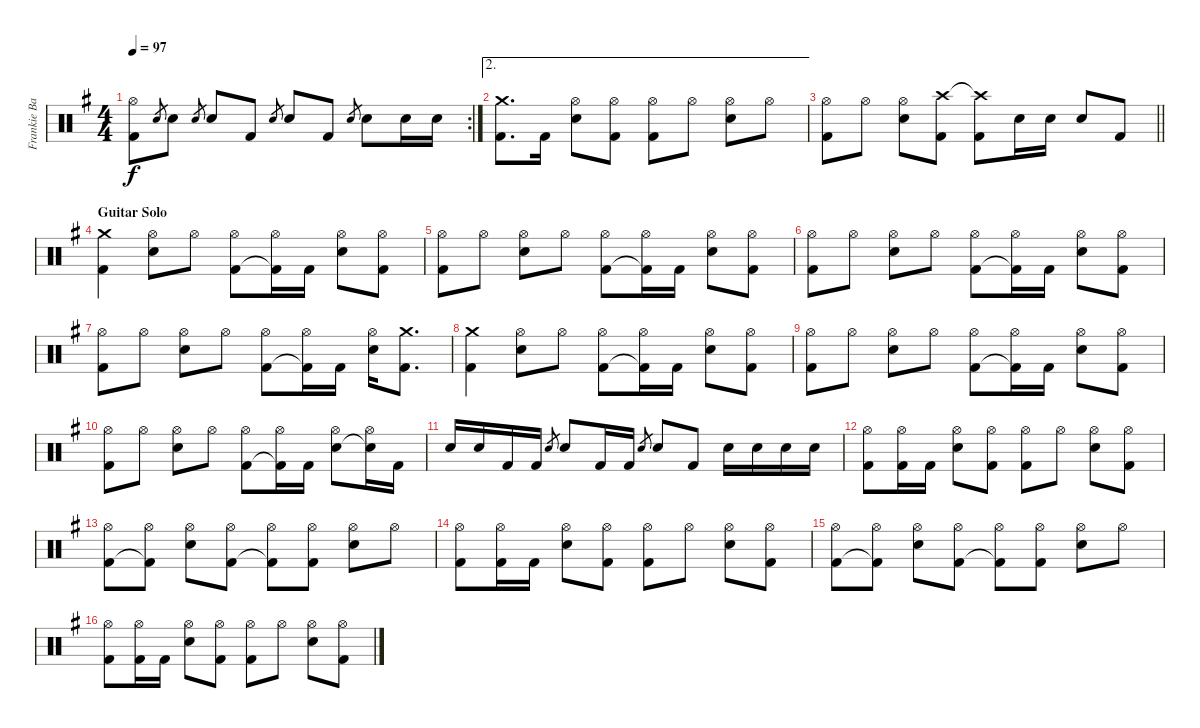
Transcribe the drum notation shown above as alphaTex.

\track ("Frankie Banali" "Frankie Ba") {instrument percussion}
\staff {score}
\articulation defaults
\rc 2
\ts (4 4)
\tempo 97
\clef neutral
\ks g
("Hi-Hat (open)" "Kick (hit) 2").8{dy f} "Snare (hit) 2".8{gr} "Snare (hit) 2".8 "Snare (hit) 2".8{gr} "Snare (hit) 2".8 "Kick (hit) 2".8 "Snare (hit) 2".8{gr} "Snare (hit) 2".8 "Kick (hit) 2".8 "Snare (hit) 2".8{gr} "Snare (hit) 2".8 "Snare (hit) 2".16 "Snare (hit) 2".16 |
\ae 2
("Crash medium (hit)" "Kick (hit) 2").8{d} "Kick (hit) 2".16 ("Hi-Hat (open)" "Snare (hit) 2").8 ("Hi-Hat (open)" "Kick (hit) 2").8 ("Hi-Hat (open)" "Kick (hit) 2").8 "Hi-Hat (open)".8 ("Hi-Hat (open)" "Snare (hit) 2").8 "Hi-Hat (open)".8 |
\barLineRight lightlight
("Hi-Hat (open)" "Kick (hit) 2").8 "Hi-Hat (open)".8 ("Hi-Hat (open)" "Snare (hit) 2").8 ("Crash high (hit)" "Kick (hit) 2").8 ("Crash high (hit)"{t} "Kick (hit) 2").8 "Snare (hit) 2".16 "Snare (hit) 2".16 "Snare (hit) 2".8 "Kick (hit) 2".8 |
\section ("" "Guitar Solo")
("Crash medium (hit)" "Kick (hit) 2").4 ("Hi-Hat (open)" "Snare (hit) 2").8 "Hi-Hat (open)".8 ("Hi-Hat (open)" "Kick (hit) 2").8 ("Hi-Hat (open)" "Kick (hit) 2"{t}).16 "Kick (hit) 2".16 ("Hi-Hat (open)" "Snare (hit) 2").8 ("Hi-Hat (open)" "Kick (hit) 2").8 |
("Hi-Hat (open)" "Kick (hit) 2").8 "Hi-Hat (open)".8 ("Hi-Hat (open)" "Snare (hit) 2").8 "Hi-Hat (open)".8 ("Hi-Hat (open)" "Kick (hit) 2").8 ("Hi-Hat (open)" "Kick (hit) 2"{t}).16 "Kick (hit) 2".16 ("Hi-Hat (open)" "Snare (hit) 2").8 ("Hi-Hat (open)" "Kick (hit) 2").8 |
("Hi-Hat (open)" "Kick (hit) 2").8 "Hi-Hat (open)".8 ("Hi-Hat (open)" "Snare (hit) 2").8 "Hi-Hat (open)".8 ("Hi-Hat (open)" "Kick (hit) 2").8 ("Hi-Hat (open)" "Kick (hit) 2"{t}).16 "Kick (hit) 2".16 ("Hi-Hat (open)" "Snare (hit) 2").8 ("Hi-Hat (open)" "Kick (hit) 2").8 |
("Hi-Hat (open)" "Kick (hit) 2").8 "Hi-Hat (open)".8 ("Hi-Hat (open)" "Snare (hit) 2").8 "Hi-Hat (open)".8 ("Hi-Hat (open)" "Kick (hit) 2").8 ("Hi-Hat (open)" "Kick (hit) 2"{t}).16 "Kick (hit) 2".16 ("Hi-Hat (open)" "Snare (hit) 2").16 ("Crash medium (hit)" "Kick (hit) 2").8{d} |
("Crash medium (hit)" "Kick (hit) 2").4 ("Hi-Hat (open)" "Snare (hit) 2").8 "Hi-Hat (open)".8 ("Hi-Hat (open)" "Kick (hit) 2").8 ("Hi-Hat (open)" "Kick (hit) 2"{t}).16 "Kick (hit) 2".16 ("Hi-Hat (open)" "Snare (hit) 2").8 ("Hi-Hat (open)" "Kick (hit) 2").8 |
("Hi-Hat (open)" "Kick (hit) 2").8 "Hi-Hat (open)".8 ("Hi-Hat (open)" "Snare (hit) 2").8 "Hi-Hat (open)".8 ("Hi-Hat (open)" "Kick (hit) 2").8 ("Hi-Hat (open)" "Kick (hit) 2"{t}).16 "Kick (hit) 2".16 ("Hi-Hat (open)" "Snare (hit) 2").8 ("Hi-Hat (open)" "Kick (hit) 2").8 |
("Hi-Hat (open)" "Kick (hit) 2").8 "Hi-Hat (open)".8 ("Hi-Hat (open)" "Snare (hit) 2").8 "Hi-Hat (open)".8 ("Hi-Hat (open)" "Kick (hit) 2").8 ("Hi-Hat (open)" "Kick (hit) 2"{t}).16 "Kick (hit) 2".16 ("Hi-Hat (open)" "Snare (hit) 2").8 ("Hi-Hat (open)" "Snare (hit) 2"{t}).16 "Kick (hit) 2".16 |
"Snare (hit) 2".16 "Snare (hit) 2".16 "Kick (hit) 2".16 "Kick (hit) 2".16 "Snare (hit) 2".8{gr} "Snare (hit) 2".8 "Kick (hit) 2".16 "Kick (hit) 2".16 "Snare (hit) 2".8{gr} "Snare (hit) 2".8 "Kick (hit) 2".8 "Snare (hit) 2".16 "Snare (hit) 2".16 "Snare (hit) 2".16 "Snare (hit) 2".16 |
("Hi-Hat (open)" "Kick (hit) 2").8 ("Hi-Hat (open)" "Kick (hit) 2").16 "Kick (hit) 2".16 ("Hi-Hat (open)" "Snare (hit) 2").8 ("Hi-Hat (open)" "Kick (hit) 2").8 ("Hi-Hat (open)" "Kick (hit) 2").8 "Hi-Hat (open)".8 ("Hi-Hat (open)" "Snare (hit) 2").8 ("Hi-Hat (open)" "Kick (hit) 2").8 |
("Hi-Hat (open)" "Kick (hit) 2").8 ("Hi-Hat (open)" "Kick (hit) 2"{t}).8 ("Hi-Hat (open)" "Snare (hit) 2").8 ("Hi-Hat (open)" "Kick (hit) 2").8 ("Hi-Hat (open)" "Kick (hit) 2"{t}).8 ("Hi-Hat (open)" "Kick (hit) 2").8 ("Hi-Hat (open)" "Snare (hit) 2").8 "Hi-Hat (open)".8 |
("Hi-Hat (open)" "Kick (hit) 2").8 ("Hi-Hat (open)" "Kick (hit) 2").16 "Kick (hit) 2".16 ("Hi-Hat (open)" "Snare (hit) 2").8 ("Hi-Hat (open)" "Kick (hit) 2").8 ("Hi-Hat (open)" "Kick (hit) 2").8 "Hi-Hat (open)".8 ("Hi-Hat (open)" "Snare (hit) 2").8 ("Hi-Hat (open)" "Kick (hit) 2").8 |
("Hi-Hat (open)" "Kick (hit) 2").8 ("Hi-Hat (open)" "Kick (hit) 2"{t}).8 ("Hi-Hat (open)" "Snare (hit) 2").8 ("Hi-Hat (open)" "Kick (hit) 2").8 ("Hi-Hat (open)" "Kick (hit) 2"{t}).8 ("Hi-Hat (open)" "Kick (hit) 2").8 ("Hi-Hat (open)" "Snare (hit) 2").8 "Hi-Hat (open)".8 |
("Hi-Hat (open)" "Kick (hit) 2").8 ("Hi-Hat (open)" "Kick (hit) 2").16 "Kick (hit) 2".16 ("Hi-Hat (open)" "Snare (hit) 2").8 ("Hi-Hat (open)" "Kick (hit) 2").8 ("Hi-Hat (open)" "Kick (hit) 2").8 "Hi-Hat (open)".8 ("Hi-Hat (open)" "Snare (hit) 2").8 ("Hi-Hat (open)" "Kick (hit) 2").8
